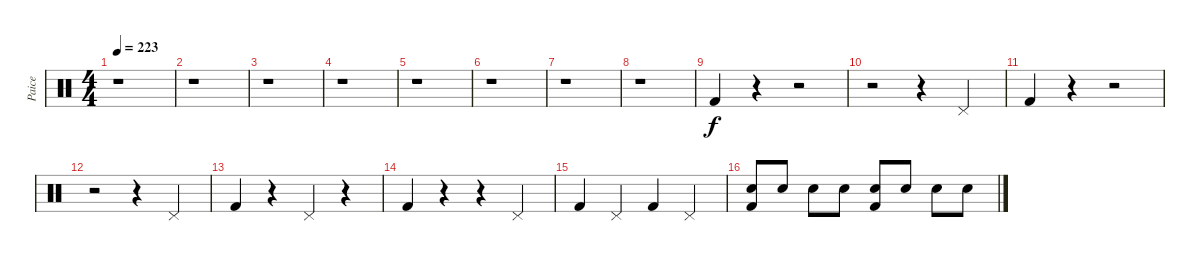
\track ("Paice" "Paice") {instrument percussion}
\staff {score}
\articulation defaults
\ts (4 4)
\tempo 223
\clef neutral
\ks c
r.1{dy f} |
r.1 |
r.1 |
r.1 |
r.1 |
r.1 |
r.1 |
r.1 |
"Kick (hit) 2".4 r.4 r.2 |
r.2 r.4 "Pedal Hi-Hat (hit)".4 |
"Kick (hit) 2".4 r.4 r.2 |
r.2 r.4 "Pedal Hi-Hat (hit)".4 |
"Kick (hit) 2".4 r.4 "Pedal Hi-Hat (hit)".4 r.4 |
"Kick (hit) 2".4 r.4 r.4 "Pedal Hi-Hat (hit)".4 |
"Kick (hit) 2".4 "Pedal Hi-Hat (hit)".4 "Kick (hit) 2".4 "Pedal Hi-Hat (hit)".4 |
("Electric Snare (hit)" "Kick (hit) 2").8 "Electric Snare (hit)".8 "Electric Snare (hit)".8 "Electric Snare (hit)".8 ("Electric Snare (hit)" "Kick (hit) 2").8 "Electric Snare (hit)".8 "Electric Snare (hit)".8 "Electric Snare (hit)".8
